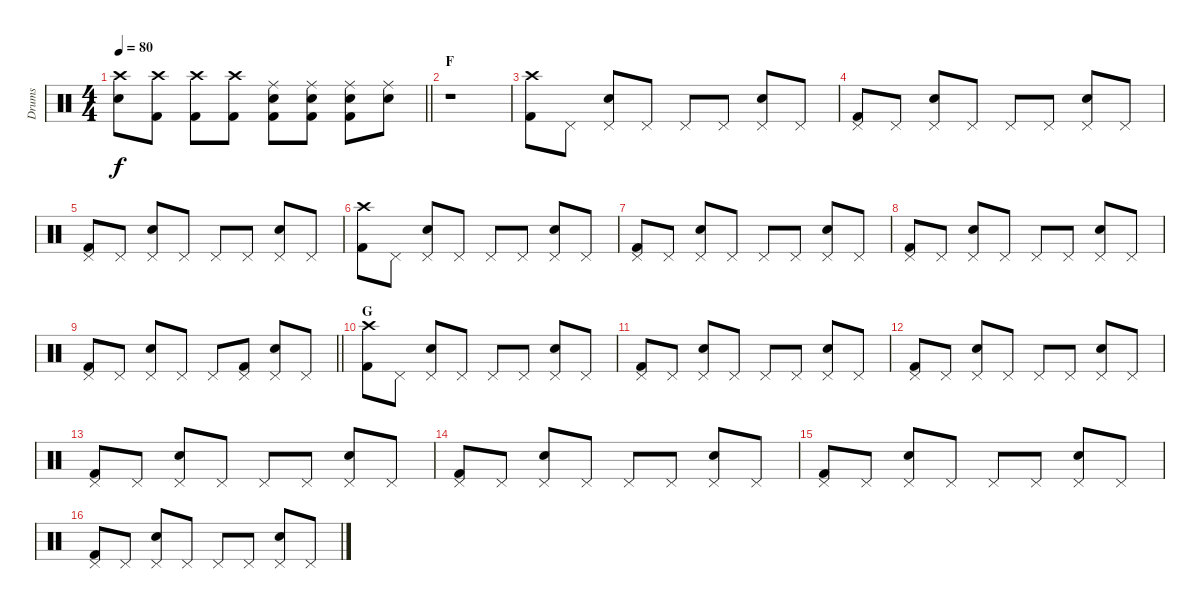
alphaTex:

\track ("Drums" "Drums") {instrument percussion}
\staff {score}
\articulation defaults
\ts (4 4)
\tempo 80
\clef neutral
\barLineRight lightlight
\ks c
("Crash high (hit)" "Snare (hit) 2").8{dy f} ("Crash high (hit)" "Kick (hit) 2").8 ("Crash high (hit)" "Kick (hit) 2").8 ("Crash high (hit)" "Kick (hit) 2").8 ("Ride (middle)" "Snare (hit) 2" "Kick (hit) 2").8{volume 16} ("Ride (middle)" "Snare (hit) 2" "Kick (hit) 2").8 ("Ride (middle)" "Snare (hit) 2" "Kick (hit) 2").8 ("Ride (middle)" "Snare (hit) 2").8 |
\section ("" "F")
r.1{volume 13} |
("Crash high (hit)" "Kick (hit) 2").8 "Pedal Hi-Hat (hit)".8 ("Pedal Hi-Hat (hit)" "Snare (hit) 2").8 "Pedal Hi-Hat (hit)".8 "Pedal Hi-Hat (hit)".8 "Pedal Hi-Hat (hit)".8 ("Pedal Hi-Hat (hit)" "Snare (hit) 2").8 "Pedal Hi-Hat (hit)".8 |
("Pedal Hi-Hat (hit)" "Kick (hit) 2").8 "Pedal Hi-Hat (hit)".8 ("Pedal Hi-Hat (hit)" "Snare (hit) 2").8 "Pedal Hi-Hat (hit)".8 "Pedal Hi-Hat (hit)".8 "Pedal Hi-Hat (hit)".8 ("Pedal Hi-Hat (hit)" "Snare (hit) 2").8 "Pedal Hi-Hat (hit)".8 |
("Pedal Hi-Hat (hit)" "Kick (hit) 2").8 "Pedal Hi-Hat (hit)".8 ("Pedal Hi-Hat (hit)" "Snare (hit) 2").8 "Pedal Hi-Hat (hit)".8 "Pedal Hi-Hat (hit)".8 "Pedal Hi-Hat (hit)".8 ("Pedal Hi-Hat (hit)" "Snare (hit) 2").8 "Pedal Hi-Hat (hit)".8 |
("Crash high (hit)" "Kick (hit) 2").8 "Pedal Hi-Hat (hit)".8 ("Pedal Hi-Hat (hit)" "Snare (hit) 2").8 "Pedal Hi-Hat (hit)".8 "Pedal Hi-Hat (hit)".8 "Pedal Hi-Hat (hit)".8 ("Pedal Hi-Hat (hit)" "Snare (hit) 2").8 "Pedal Hi-Hat (hit)".8 |
("Pedal Hi-Hat (hit)" "Kick (hit) 2").8 "Pedal Hi-Hat (hit)".8 ("Pedal Hi-Hat (hit)" "Snare (hit) 2").8 "Pedal Hi-Hat (hit)".8 "Pedal Hi-Hat (hit)".8 "Pedal Hi-Hat (hit)".8 ("Pedal Hi-Hat (hit)" "Snare (hit) 2").8 "Pedal Hi-Hat (hit)".8 |
("Pedal Hi-Hat (hit)" "Kick (hit) 2").8 "Pedal Hi-Hat (hit)".8 ("Pedal Hi-Hat (hit)" "Snare (hit) 2").8 "Pedal Hi-Hat (hit)".8 "Pedal Hi-Hat (hit)".8 "Pedal Hi-Hat (hit)".8 ("Pedal Hi-Hat (hit)" "Snare (hit) 2").8 "Pedal Hi-Hat (hit)".8 |
\barLineRight lightlight
("Pedal Hi-Hat (hit)" "Kick (hit) 2").8 "Pedal Hi-Hat (hit)".8 ("Pedal Hi-Hat (hit)" "Snare (hit) 2").8 "Pedal Hi-Hat (hit)".8 "Pedal Hi-Hat (hit)".8 ("Pedal Hi-Hat (hit)" "Kick (hit) 2").8 ("Pedal Hi-Hat (hit)" "Snare (hit) 2").8 "Pedal Hi-Hat (hit)".8 |
\section ("" "G")
("Crash high (hit)" "Kick (hit) 2").8 "Pedal Hi-Hat (hit)".8 ("Pedal Hi-Hat (hit)" "Snare (hit) 2").8 "Pedal Hi-Hat (hit)".8 "Pedal Hi-Hat (hit)".8 "Pedal Hi-Hat (hit)".8 ("Pedal Hi-Hat (hit)" "Snare (hit) 2").8 "Pedal Hi-Hat (hit)".8 |
("Pedal Hi-Hat (hit)" "Kick (hit) 2").8 "Pedal Hi-Hat (hit)".8 ("Pedal Hi-Hat (hit)" "Snare (hit) 2").8 "Pedal Hi-Hat (hit)".8 "Pedal Hi-Hat (hit)".8 "Pedal Hi-Hat (hit)".8 ("Pedal Hi-Hat (hit)" "Snare (hit) 2").8 "Pedal Hi-Hat (hit)".8 |
("Pedal Hi-Hat (hit)" "Kick (hit) 2").8 "Pedal Hi-Hat (hit)".8 ("Pedal Hi-Hat (hit)" "Snare (hit) 2").8 "Pedal Hi-Hat (hit)".8 "Pedal Hi-Hat (hit)".8 "Pedal Hi-Hat (hit)".8 ("Pedal Hi-Hat (hit)" "Snare (hit) 2").8 "Pedal Hi-Hat (hit)".8 |
("Pedal Hi-Hat (hit)" "Kick (hit) 2").8 "Pedal Hi-Hat (hit)".8 ("Pedal Hi-Hat (hit)" "Snare (hit) 2").8 "Pedal Hi-Hat (hit)".8 "Pedal Hi-Hat (hit)".8 "Pedal Hi-Hat (hit)".8 ("Pedal Hi-Hat (hit)" "Snare (hit) 2").8 "Pedal Hi-Hat (hit)".8 |
("Pedal Hi-Hat (hit)" "Kick (hit) 2").8 "Pedal Hi-Hat (hit)".8 ("Pedal Hi-Hat (hit)" "Snare (hit) 2").8 "Pedal Hi-Hat (hit)".8 "Pedal Hi-Hat (hit)".8 "Pedal Hi-Hat (hit)".8 ("Pedal Hi-Hat (hit)" "Snare (hit) 2").8 "Pedal Hi-Hat (hit)".8 |
("Pedal Hi-Hat (hit)" "Kick (hit) 2").8 "Pedal Hi-Hat (hit)".8 ("Pedal Hi-Hat (hit)" "Snare (hit) 2").8 "Pedal Hi-Hat (hit)".8 "Pedal Hi-Hat (hit)".8 "Pedal Hi-Hat (hit)".8 ("Pedal Hi-Hat (hit)" "Snare (hit) 2").8 "Pedal Hi-Hat (hit)".8 |
("Pedal Hi-Hat (hit)" "Kick (hit) 2").8 "Pedal Hi-Hat (hit)".8 ("Pedal Hi-Hat (hit)" "Snare (hit) 2").8 "Pedal Hi-Hat (hit)".8 "Pedal Hi-Hat (hit)".8 "Pedal Hi-Hat (hit)".8 ("Pedal Hi-Hat (hit)" "Snare (hit) 2").8 "Pedal Hi-Hat (hit)".8
